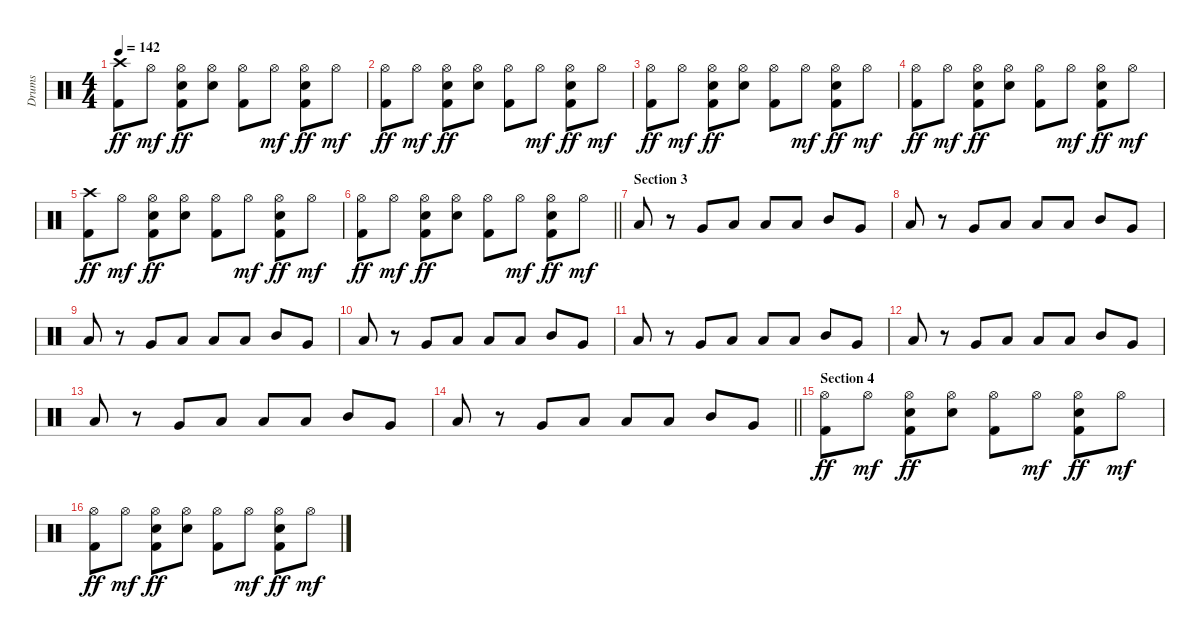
\track ("Drums" "Drums") {instrument percussion}
\staff {score}
\articulation defaults
\ts (4 4)
\tempo 142
\clef neutral
\ks c
("Crash high (hit)" "Kick (hit) 2").8{dy ff} "Hi-Hat (open)".8{dy mf} ("Hi-Hat (open)" "Snare (hit) 2" "Kick (hit) 2").8{dy ff} ("Hi-Hat (open)" "Snare (hit) 2").8 ("Hi-Hat (open)" "Kick (hit) 2").8 "Hi-Hat (open)".8{dy mf} ("Hi-Hat (open)" "Snare (hit) 2" "Kick (hit) 2").8{dy ff} "Hi-Hat (open)".8{dy mf} |
("Hi-Hat (open)" "Kick (hit) 2").8{dy ff} "Hi-Hat (open)".8{dy mf} ("Hi-Hat (open)" "Snare (hit) 2" "Kick (hit) 2").8{dy ff} ("Hi-Hat (open)" "Snare (hit) 2").8 ("Hi-Hat (open)" "Kick (hit) 2").8 "Hi-Hat (open)".8{dy mf} ("Hi-Hat (open)" "Snare (hit) 2" "Kick (hit) 2").8{dy ff} "Hi-Hat (open)".8{dy mf} |
("Hi-Hat (open)" "Kick (hit) 2").8{dy ff} "Hi-Hat (open)".8{dy mf} ("Hi-Hat (open)" "Snare (hit) 2" "Kick (hit) 2").8{dy ff} ("Hi-Hat (open)" "Snare (hit) 2").8 ("Hi-Hat (open)" "Kick (hit) 2").8 "Hi-Hat (open)".8{dy mf} ("Hi-Hat (open)" "Snare (hit) 2" "Kick (hit) 2").8{dy ff} "Hi-Hat (open)".8{dy mf} |
("Hi-Hat (open)" "Kick (hit) 2").8{dy ff} "Hi-Hat (open)".8{dy mf} ("Hi-Hat (open)" "Snare (hit) 2" "Kick (hit) 2").8{dy ff} ("Hi-Hat (open)" "Snare (hit) 2").8 ("Hi-Hat (open)" "Kick (hit) 2").8 "Hi-Hat (open)".8{dy mf} ("Hi-Hat (open)" "Snare (hit) 2" "Kick (hit) 2").8{dy ff} "Hi-Hat (open)".8{dy mf} |
("Crash high (hit)" "Kick (hit) 2").8{dy ff} "Hi-Hat (open)".8{dy mf} ("Hi-Hat (open)" "Snare (hit) 2" "Kick (hit) 2").8{dy ff} ("Hi-Hat (open)" "Snare (hit) 2").8 ("Hi-Hat (open)" "Kick (hit) 2").8 "Hi-Hat (open)".8{dy mf} ("Hi-Hat (open)" "Snare (hit) 2" "Kick (hit) 2").8{dy ff} "Hi-Hat (open)".8{dy mf} |
\barLineRight lightlight
("Hi-Hat (open)" "Kick (hit) 2").8{dy ff} "Hi-Hat (open)".8{dy mf} ("Hi-Hat (open)" "Snare (hit) 2" "Kick (hit) 2").8{dy ff} ("Hi-Hat (open)" "Snare (hit) 2").8 ("Hi-Hat (open)" "Kick (hit) 2").8 "Hi-Hat (open)".8{dy mf} ("Hi-Hat (open)" "Snare (hit) 2" "Kick (hit) 2").8{dy ff} "Hi-Hat (open)".8{dy mf} |
\section ("" "Section 3")
"Low Tom (hit)".8 r.8 "Very Low Tom (hit)".8 "Low Tom (hit)".8 "Low Floor Tom (hit)".8 "Low Floor Tom (hit)".8 "Mid Tom (hit)".8 "Very Low Tom (hit)".8 |
"Low Tom (hit)".8 r.8 "Very Low Tom (hit)".8 "Low Tom (hit)".8 "Low Floor Tom (hit)".8 "Low Floor Tom (hit)".8 "Mid Tom (hit)".8 "Very Low Tom (hit)".8 |
"Low Tom (hit)".8 r.8 "Very Low Tom (hit)".8 "Low Tom (hit)".8 "Low Floor Tom (hit)".8 "Low Floor Tom (hit)".8 "Mid Tom (hit)".8 "Very Low Tom (hit)".8 |
"Low Tom (hit)".8 r.8 "Very Low Tom (hit)".8 "Low Tom (hit)".8 "Low Floor Tom (hit)".8 "Low Floor Tom (hit)".8 "Mid Tom (hit)".8 "Very Low Tom (hit)".8 |
"Low Tom (hit)".8 r.8 "Very Low Tom (hit)".8 "Low Tom (hit)".8 "Low Floor Tom (hit)".8 "Low Floor Tom (hit)".8 "Mid Tom (hit)".8 "Very Low Tom (hit)".8 |
"Low Tom (hit)".8 r.8 "Very Low Tom (hit)".8 "Low Tom (hit)".8 "Low Floor Tom (hit)".8 "Low Floor Tom (hit)".8 "Mid Tom (hit)".8 "Very Low Tom (hit)".8 |
"Low Tom (hit)".8 r.8 "Very Low Tom (hit)".8 "Low Tom (hit)".8 "Low Floor Tom (hit)".8 "Low Floor Tom (hit)".8 "Mid Tom (hit)".8 "Very Low Tom (hit)".8 |
\barLineRight lightlight "Low Tom (hit)".8
r.8 "Very Low Tom (hit)".8 "Low Tom (hit)".8 "Low Floor Tom (hit)".8 "Low Floor Tom (hit)".8 "Mid Tom (hit)".8 "Very Low Tom (hit)".8 |
\section ("" "Section 4")
("Hi-Hat (open)" "Kick (hit) 2").8{dy ff} "Hi-Hat (open)".8{dy mf} ("Hi-Hat (open)" "Snare (hit) 2" "Kick (hit) 2").8{dy ff} ("Hi-Hat (open)" "Snare (hit) 2").8 ("Hi-Hat (open)" "Kick (hit) 2").8 "Hi-Hat (open)".8{dy mf} ("Hi-Hat (open)" "Snare (hit) 2" "Kick (hit) 2").8{dy ff} "Hi-Hat (open)".8{dy mf} |
("Hi-Hat (open)" "Kick (hit) 2").8{dy ff} "Hi-Hat (open)".8{dy mf} ("Hi-Hat (open)" "Snare (hit) 2" "Kick (hit) 2").8{dy ff} ("Hi-Hat (open)" "Snare (hit) 2").8 ("Hi-Hat (open)" "Kick (hit) 2").8 "Hi-Hat (open)".8{dy mf} ("Hi-Hat (open)" "Snare (hit) 2" "Kick (hit) 2").8{dy ff} "Hi-Hat (open)".8{dy mf}
